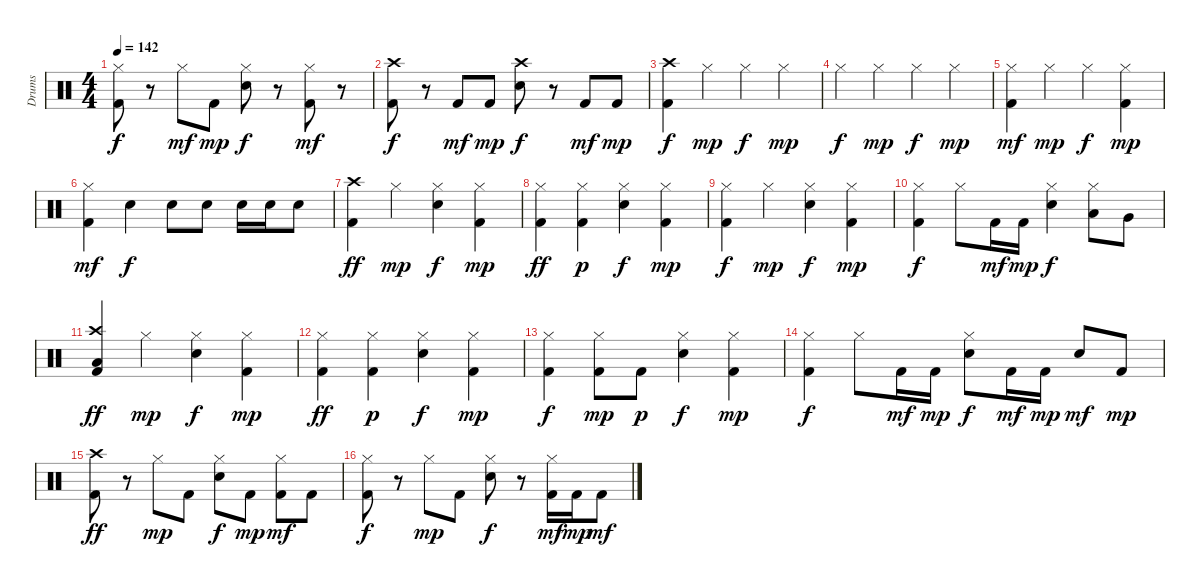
\track ("Drums" "Drums") {instrument percussion}
\staff {score}
\articulation defaults
\ts (4 4)
\tempo 142
\clef neutral
\ks c
("Hi-Hat (closed)" "Kick (hit) 2").8{dy f} r.8 "Hi-Hat (closed)".8{dy mf} "Kick (hit) 2".8{dy mp} ("Hi-Hat (closed)" "Snare (hit) 2").8{dy f} r.8 ("Hi-Hat (closed)" "Kick (hit) 2").8{dy mf} r.8 |
("Crash high (hit)" "Kick (hit) 2").8{dy f} r.8 "Kick (hit) 2".8{dy mf} "Kick (hit) 2".8{dy mp} ("Crash high (hit)" "Snare (hit) 2").8{dy f} r.8 "Kick (hit) 2".8{dy mf} "Kick (hit) 2".8{dy mp} |
("Crash high (hit)" "Kick (hit) 2").4{dy f} "Hi-Hat (closed)".4{dy mp} "Hi-Hat (closed)".4{dy f} "Hi-Hat (closed)".4{dy mp} |
"Hi-Hat (closed)".4{dy f} "Hi-Hat (closed)".4{dy mp} "Hi-Hat (closed)".4{dy f} "Hi-Hat (closed)".4{dy mp} |
("Hi-Hat (closed)" "Kick (hit) 2").4{dy mf} "Hi-Hat (closed)".4{dy mp} "Hi-Hat (closed)".4{dy f} ("Hi-Hat (closed)" "Kick (hit) 2").4{dy mp} |
("Hi-Hat (closed)" "Kick (hit) 2").4{dy mf} "Electric Snare (hit)".4{dy f} "Electric Snare (hit)".8 "Electric Snare (hit)".8 "Electric Snare (hit)".16 "Electric Snare (hit)".16 "Electric Snare (hit)".8 |
("Crash high (hit)" "Kick (hit) 2").4{dy ff} "Hi-Hat (closed)".4{dy mp} ("Hi-Hat (closed)" "Snare (hit) 2").4{dy f} ("Hi-Hat (closed)" "Kick (hit) 2").4{dy mp} |
("Hi-Hat (closed)" "Kick (hit) 2").4{dy ff} ("Hi-Hat (closed)" "Kick (hit) 2").4{dy p} ("Hi-Hat (closed)" "Snare (hit) 2").4{dy f} ("Hi-Hat (closed)" "Kick (hit) 2").4{dy mp} |
("Hi-Hat (closed)" "Kick (hit) 2").4{dy f} "Hi-Hat (closed)".4{dy mp} ("Hi-Hat (closed)" "Snare (hit) 2").4{dy f} ("Hi-Hat (closed)" "Kick (hit) 2").4{dy mp} |
("Hi-Hat (closed)" "Kick (hit) 2").4{dy f} "Hi-Hat (closed)".8 "Kick (hit) 2".16{dy mf} "Kick (hit) 2".16{dy mp} ("Hi-Hat (closed)" "Snare (hit) 2").4{dy f} ("Hi-Hat (closed)" "Low Tom (hit)").8 "Very Low Tom (hit)".8 |
("Crash high (hit)" "Low Floor Tom (hit)" "Kick (hit) 2").4{dy ff} "Hi-Hat (closed)".4{dy mp} ("Hi-Hat (closed)" "Snare (hit) 2").4{dy f} ("Hi-Hat (closed)" "Kick (hit) 2").4{dy mp} |
("Hi-Hat (closed)" "Kick (hit) 2").4{dy ff} ("Hi-Hat (closed)" "Kick (hit) 2").4{dy p} ("Hi-Hat (closed)" "Snare (hit) 2").4{dy f} ("Hi-Hat (closed)" "Kick (hit) 2").4{dy mp} |
("Hi-Hat (closed)" "Kick (hit) 2").4{dy f} ("Hi-Hat (closed)" "Kick (hit) 2").8{dy mp} "Kick (hit) 2".8{dy p} ("Hi-Hat (closed)" "Snare (hit) 2").4{dy f} ("Hi-Hat (closed)" "Kick (hit) 2").4{dy mp} |
("Hi-Hat (closed)" "Kick (hit) 2").4{dy f} "Hi-Hat (closed)".8 "Kick (hit) 2".16{dy mf} "Kick (hit) 2".16{dy mp} ("Hi-Hat (closed)" "Snare (hit) 2").8{dy f} "Kick (hit) 2".16{dy mf} "Kick (hit) 2".16{dy mp} "Snare (hit) 2".8{dy mf} "Kick (hit) 2".8{dy mp} |
("Crash high (hit)" "Kick (hit) 2").8{dy ff} r.8 "Hi-Hat (closed)".8{dy mp} "Kick (hit) 2".8 ("Hi-Hat (closed)" "Snare (hit) 2").8{dy f} "Kick (hit) 2".8{dy mp} ("Hi-Hat (closed)" "Kick (hit) 2").8{dy mf} "Kick (hit) 2".8 |
("Hi-Hat (closed)" "Kick (hit) 2").8{dy f} r.8 "Hi-Hat (closed)".8{dy mp} "Kick (hit) 2".8 ("Hi-Hat (closed)" "Snare (hit) 2").8{dy f} r.8 ("Hi-Hat (closed)" "Kick (hit) 2").16{dy mf} "Kick (hit) 2".16{dy mp} "Kick (hit) 2".8{dy mf}
